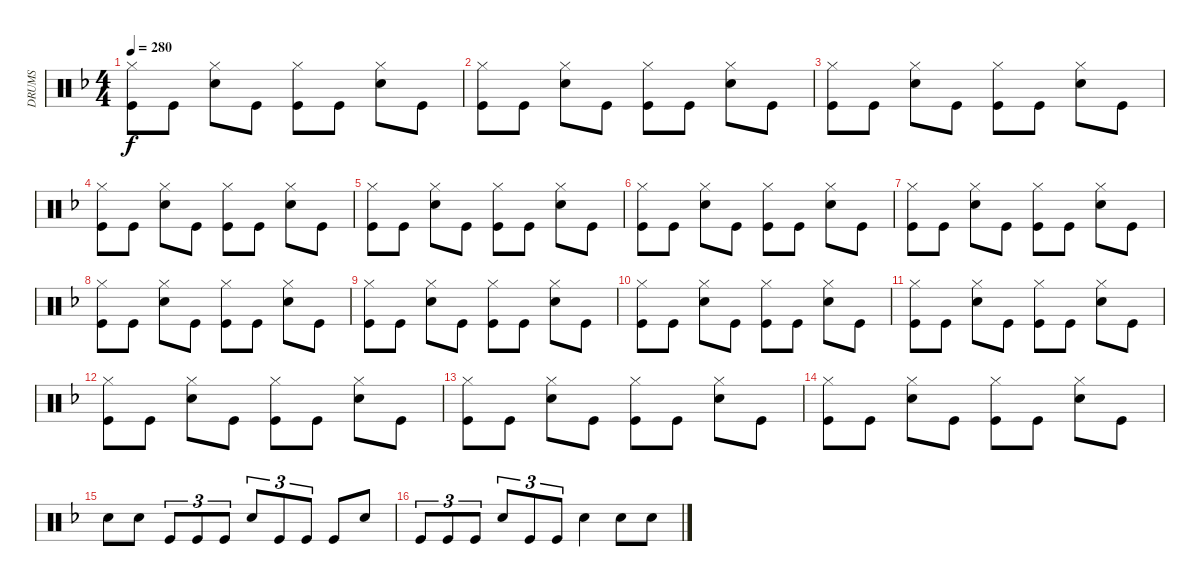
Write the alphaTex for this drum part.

\track ("DRUMS" "DRUMS") {instrument percussion}
\staff {score}
\articulation defaults
\ts (4 4)
\tempo 280
\clef neutral
\ks dminor
("Hi-Hat (closed)" "Kick (hit)").8{dy f} "Kick (hit)".8 ("Hi-Hat (closed)" "Snare (hit) 2").8 "Kick (hit)".8 ("Hi-Hat (closed)" "Kick (hit)").8 "Kick (hit)".8 ("Hi-Hat (closed)" "Snare (hit) 2").8 "Kick (hit)".8 |
("Hi-Hat (closed)" "Kick (hit)").8 "Kick (hit)".8 ("Hi-Hat (closed)" "Snare (hit) 2").8 "Kick (hit)".8 ("Hi-Hat (closed)" "Kick (hit)").8 "Kick (hit)".8 ("Hi-Hat (closed)" "Snare (hit) 2").8 "Kick (hit)".8 |
("Hi-Hat (closed)" "Kick (hit)").8 "Kick (hit)".8 ("Hi-Hat (closed)" "Snare (hit) 2").8 "Kick (hit)".8 ("Hi-Hat (closed)" "Kick (hit)").8 "Kick (hit)".8 ("Hi-Hat (closed)" "Snare (hit) 2").8 "Kick (hit)".8 |
("Hi-Hat (closed)" "Kick (hit)").8 "Kick (hit)".8 ("Hi-Hat (closed)" "Snare (hit) 2").8 "Kick (hit)".8 ("Hi-Hat (closed)" "Kick (hit)").8 "Kick (hit)".8 ("Hi-Hat (closed)" "Snare (hit) 2").8 "Kick (hit)".8 |
("Hi-Hat (closed)" "Kick (hit)").8 "Kick (hit)".8 ("Hi-Hat (closed)" "Snare (hit) 2").8 "Kick (hit)".8 ("Hi-Hat (closed)" "Kick (hit)").8 "Kick (hit)".8 ("Hi-Hat (closed)" "Snare (hit) 2").8 "Kick (hit)".8 |
("Hi-Hat (closed)" "Kick (hit)").8 "Kick (hit)".8 ("Hi-Hat (closed)" "Snare (hit) 2").8 "Kick (hit)".8 ("Hi-Hat (closed)" "Kick (hit)").8 "Kick (hit)".8 ("Hi-Hat (closed)" "Snare (hit) 2").8 "Kick (hit)".8 |
("Hi-Hat (closed)" "Kick (hit)").8 "Kick (hit)".8 ("Hi-Hat (closed)" "Snare (hit) 2").8 "Kick (hit)".8 ("Hi-Hat (closed)" "Kick (hit)").8 "Kick (hit)".8 ("Hi-Hat (closed)" "Snare (hit) 2").8 "Kick (hit)".8 |
("Hi-Hat (closed)" "Kick (hit)").8 "Kick (hit)".8 ("Hi-Hat (closed)" "Snare (hit) 2").8 "Kick (hit)".8 ("Hi-Hat (closed)" "Kick (hit)").8 "Kick (hit)".8 ("Hi-Hat (closed)" "Snare (hit) 2").8 "Kick (hit)".8 |
("Hi-Hat (closed)" "Kick (hit)").8 "Kick (hit)".8 ("Hi-Hat (closed)" "Snare (hit) 2").8 "Kick (hit)".8 ("Hi-Hat (closed)" "Kick (hit)").8 "Kick (hit)".8 ("Hi-Hat (closed)" "Snare (hit) 2").8 "Kick (hit)".8 |
("Hi-Hat (closed)" "Kick (hit)").8 "Kick (hit)".8 ("Hi-Hat (closed)" "Snare (hit) 2").8 "Kick (hit)".8 ("Hi-Hat (closed)" "Kick (hit)").8 "Kick (hit)".8 ("Hi-Hat (closed)" "Snare (hit) 2").8 "Kick (hit)".8 |
("Hi-Hat (closed)" "Kick (hit)").8 "Kick (hit)".8 ("Hi-Hat (closed)" "Snare (hit) 2").8 "Kick (hit)".8 ("Hi-Hat (closed)" "Kick (hit)").8 "Kick (hit)".8 ("Hi-Hat (closed)" "Snare (hit) 2").8 "Kick (hit)".8 |
("Hi-Hat (closed)" "Kick (hit)").8 "Kick (hit)".8 ("Hi-Hat (closed)" "Snare (hit) 2").8 "Kick (hit)".8 ("Hi-Hat (closed)" "Kick (hit)").8 "Kick (hit)".8 ("Hi-Hat (closed)" "Snare (hit) 2").8 "Kick (hit)".8 |
("Hi-Hat (closed)" "Kick (hit)").8 "Kick (hit)".8 ("Hi-Hat (closed)" "Snare (hit) 2").8 "Kick (hit)".8 ("Hi-Hat (closed)" "Kick (hit)").8 "Kick (hit)".8 ("Hi-Hat (closed)" "Snare (hit) 2").8 "Kick (hit)".8 |
("Hi-Hat (closed)" "Kick (hit)").8 "Kick (hit)".8 ("Hi-Hat (closed)" "Snare (hit) 2").8 "Kick (hit)".8 ("Hi-Hat (closed)" "Kick (hit)").8 "Kick (hit)".8 ("Hi-Hat (closed)" "Snare (hit) 2").8 "Kick (hit)".8 |
"Snare (hit) 2".8 "Snare (hit) 2".8 "Kick (hit)".8{tu (3 2)} "Kick (hit)".8{tu (3 2)} "Kick (hit)".8{tu (3 2)} "Snare (hit) 2".8{tu (3 2)} "Kick (hit)".8{tu (3 2)} "Kick (hit)".8{tu (3 2)} "Kick (hit)".8 "Snare (hit) 2".8 |
"Kick (hit)".8{tu (3 2)} "Kick (hit)".8{tu (3 2)} "Kick (hit)".8{tu (3 2)} "Snare (hit) 2".8{tu (3 2)} "Kick (hit)".8{tu (3 2)} "Kick (hit)".8{tu (3 2)} "Snare (hit) 2".4 "Snare (hit) 2".8 "Snare (hit) 2".8
